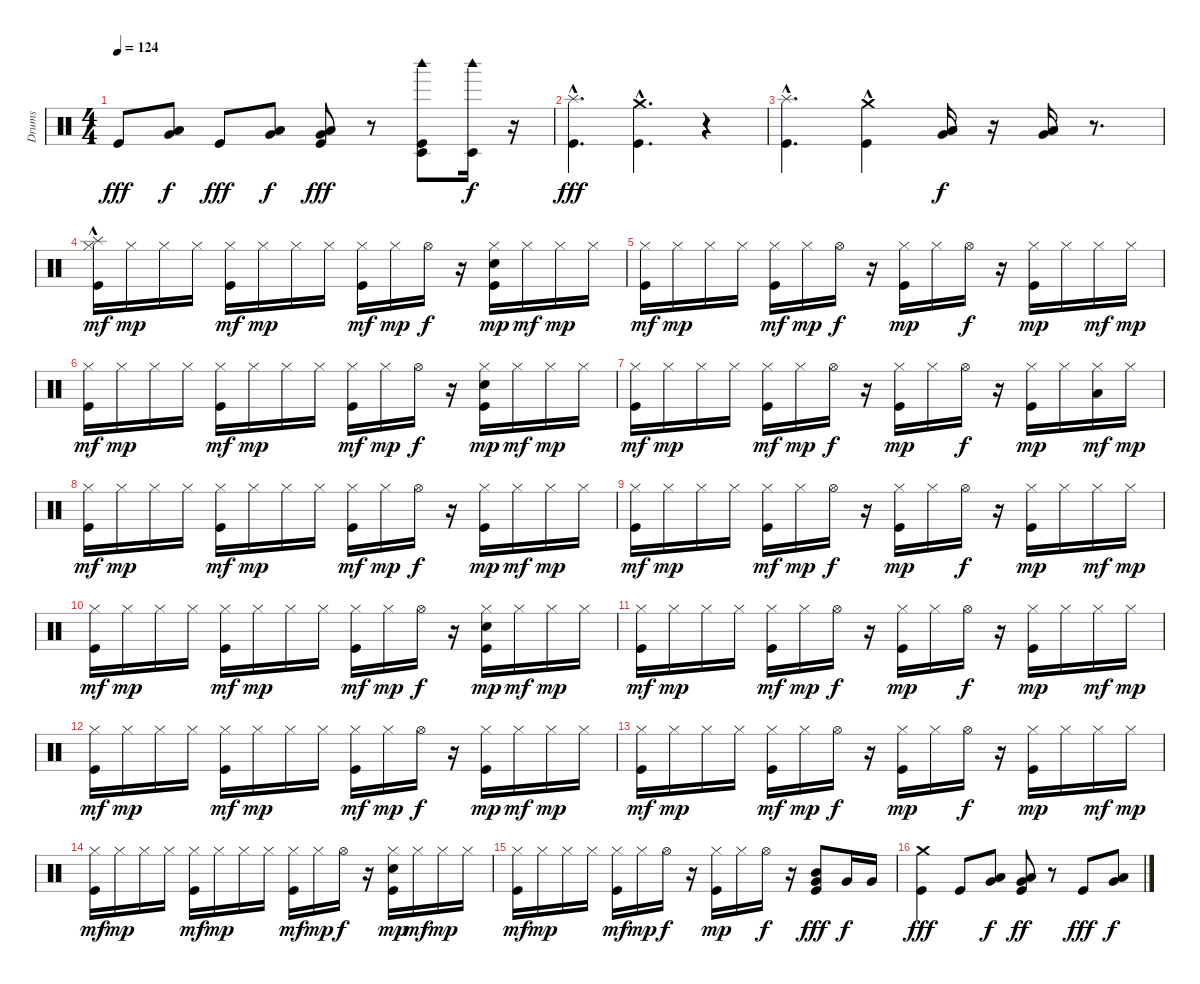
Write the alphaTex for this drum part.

\track ("Drums" "Drums") {instrument percussion}
\staff {score}
\articulation defaults
\ts (4 4)
\tempo 124
\clef neutral
\ks c "Kick (hit)".8{dy fff}
("Very Low Tom (hit)" "Low Tom (hit)").8{dy f} "Kick (hit)".8{dy fff} ("Very Low Tom (hit)" "Low Tom (hit)").8{dy f} ("Kick (hit)" "Very Low Tom (hit)" "Low Tom (hit)").8{dy fff} r.8 ("Kick (hit)" "Woodblock high (hit)" "Timbale low (hit)").8 ("Woodblock high (hit)" "Timbale low (hit)").16{dy f} r.16 |
("Kick (hit)" "Splash (hit)"{hac}).4{d dy fff} ("Kick (hit)" "Crash medium (hit)"{hac}).4{d} r.4 |
("Kick (hit)" "Splash (hit)"{hac}).4{d} ("Kick (hit)" "Crash medium (hit)"{hac}).4 ("Very Low Tom (hit)" "Low Tom (hit)").16{dy f} r.16 ("Very Low Tom (hit)" "Low Tom (hit)").16 r.8{d} |
("Kick (hit)" "Hi-Hat (closed)" "Splash (hit)"{hac}).16{dy mf} "Hi-Hat (closed)".16{dy mp} "Hi-Hat (closed)".16 "Hi-Hat (closed)".16 ("Kick (hit)" "Hi-Hat (closed)").16{dy mf} "Hi-Hat (closed)".16{dy mp} "Hi-Hat (closed)".16 "Hi-Hat (closed)".16 ("Kick (hit)" "Hi-Hat (closed)").16{dy mf} "Hi-Hat (closed)".16{dy mp} "Hi-Hat (open)".16{dy f} r.16 ("Kick (hit)" "Electric Snare (hit)" "Hi-Hat (closed)").16{dy mp} "Hi-Hat (closed)".16{dy mf} "Hi-Hat (closed)".16{dy mp} "Hi-Hat (closed)".16 |
("Kick (hit)" "Hi-Hat (closed)").16{dy mf} "Hi-Hat (closed)".16{dy mp} "Hi-Hat (closed)".16 "Hi-Hat (closed)".16 ("Kick (hit)" "Hi-Hat (closed)").16{dy mf} "Hi-Hat (closed)".16{dy mp} "Hi-Hat (open)".16{dy f} r.16 ("Kick (hit)" "Hi-Hat (closed)").16{dy mp} "Hi-Hat (closed)".16 "Hi-Hat (open)".16{dy f} r.16 ("Kick (hit)" "Hi-Hat (closed)").16{dy mp} "Hi-Hat (closed)".16 "Hi-Hat (closed)".16{dy mf} "Hi-Hat (closed)".16{dy mp} |
("Kick (hit)" "Hi-Hat (closed)").16{dy mf} "Hi-Hat (closed)".16{dy mp} "Hi-Hat (closed)".16 "Hi-Hat (closed)".16 ("Kick (hit)" "Hi-Hat (closed)").16{dy mf} "Hi-Hat (closed)".16{dy mp} "Hi-Hat (closed)".16 "Hi-Hat (closed)".16 ("Kick (hit)" "Hi-Hat (closed)").16{dy mf} "Hi-Hat (closed)".16{dy mp} "Hi-Hat (open)".16{dy f} r.16 ("Kick (hit)" "Electric Snare (hit)" "Hi-Hat (closed)").16{dy mp} "Hi-Hat (closed)".16{dy mf} "Hi-Hat (closed)".16{dy mp} "Hi-Hat (closed)".16 |
("Kick (hit)" "Hi-Hat (closed)").16{dy mf} "Hi-Hat (closed)".16{dy mp} "Hi-Hat (closed)".16 "Hi-Hat (closed)".16 ("Kick (hit)" "Hi-Hat (closed)").16{dy mf} "Hi-Hat (closed)".16{dy mp} "Hi-Hat (open)".16{dy f} r.16 ("Kick (hit)" "Hi-Hat (closed)").16{dy mp} "Hi-Hat (closed)".16 "Hi-Hat (open)".16{dy f} r.16 ("Kick (hit)" "Hi-Hat (closed)").16{dy mp} "Hi-Hat (closed)".16 ("Hi-Hat (closed)" "Low Tom (hit)").16{dy mf} "Hi-Hat (closed)".16{dy mp} |
("Kick (hit)" "Hi-Hat (closed)").16{dy mf} "Hi-Hat (closed)".16{dy mp} "Hi-Hat (closed)".16 "Hi-Hat (closed)".16 ("Kick (hit)" "Hi-Hat (closed)").16{dy mf} "Hi-Hat (closed)".16{dy mp} "Hi-Hat (closed)".16 "Hi-Hat (closed)".16 ("Kick (hit)" "Hi-Hat (closed)").16{dy mf} "Hi-Hat (closed)".16{dy mp} "Hi-Hat (open)".16{dy f} r.16 ("Kick (hit)" "Hi-Hat (closed)").16{dy mp} "Hi-Hat (closed)".16{dy mf} "Hi-Hat (closed)".16{dy mp} "Hi-Hat (closed)".16 |
("Kick (hit)" "Hi-Hat (closed)").16{dy mf} "Hi-Hat (closed)".16{dy mp} "Hi-Hat (closed)".16 "Hi-Hat (closed)".16 ("Kick (hit)" "Hi-Hat (closed)").16{dy mf} "Hi-Hat (closed)".16{dy mp} "Hi-Hat (open)".16{dy f} r.16 ("Kick (hit)" "Hi-Hat (closed)").16{dy mp} "Hi-Hat (closed)".16 "Hi-Hat (open)".16{dy f} r.16 ("Kick (hit)" "Hi-Hat (closed)").16{dy mp} "Hi-Hat (closed)".16 "Hi-Hat (closed)".16{dy mf} "Hi-Hat (closed)".16{dy mp} |
("Kick (hit)" "Hi-Hat (closed)").16{dy mf} "Hi-Hat (closed)".16{dy mp} "Hi-Hat (closed)".16 "Hi-Hat (closed)".16 ("Kick (hit)" "Hi-Hat (closed)").16{dy mf} "Hi-Hat (closed)".16{dy mp} "Hi-Hat (closed)".16 "Hi-Hat (closed)".16 ("Kick (hit)" "Hi-Hat (closed)").16{dy mf} "Hi-Hat (closed)".16{dy mp} "Hi-Hat (open)".16{dy f} r.16 ("Kick (hit)" "Electric Snare (hit)" "Hi-Hat (closed)").16{dy mp} "Hi-Hat (closed)".16{dy mf} "Hi-Hat (closed)".16{dy mp} "Hi-Hat (closed)".16 |
("Kick (hit)" "Hi-Hat (closed)").16{dy mf} "Hi-Hat (closed)".16{dy mp} "Hi-Hat (closed)".16 "Hi-Hat (closed)".16 ("Kick (hit)" "Hi-Hat (closed)").16{dy mf} "Hi-Hat (closed)".16{dy mp} "Hi-Hat (open)".16{dy f} r.16 ("Kick (hit)" "Hi-Hat (closed)").16{dy mp} "Hi-Hat (closed)".16 "Hi-Hat (open)".16{dy f} r.16 ("Kick (hit)" "Hi-Hat (closed)").16{dy mp} "Hi-Hat (closed)".16 "Hi-Hat (closed)".16{dy mf} "Hi-Hat (closed)".16{dy mp} |
("Kick (hit)" "Hi-Hat (closed)").16{dy mf} "Hi-Hat (closed)".16{dy mp} "Hi-Hat (closed)".16 "Hi-Hat (closed)".16 ("Kick (hit)" "Hi-Hat (closed)").16{dy mf} "Hi-Hat (closed)".16{dy mp} "Hi-Hat (closed)".16 "Hi-Hat (closed)".16 ("Kick (hit)" "Hi-Hat (closed)").16{dy mf} "Hi-Hat (closed)".16{dy mp} "Hi-Hat (open)".16{dy f} r.16 ("Kick (hit)" "Hi-Hat (closed)").16{dy mp} "Hi-Hat (closed)".16{dy mf} "Hi-Hat (closed)".16{dy mp} "Hi-Hat (closed)".16 |
("Kick (hit)" "Hi-Hat (closed)").16{dy mf} "Hi-Hat (closed)".16{dy mp} "Hi-Hat (closed)".16 "Hi-Hat (closed)".16 ("Kick (hit)" "Hi-Hat (closed)").16{dy mf} "Hi-Hat (closed)".16{dy mp} "Hi-Hat (open)".16{dy f} r.16 ("Kick (hit)" "Hi-Hat (closed)").16{dy mp} "Hi-Hat (closed)".16 "Hi-Hat (open)".16{dy f} r.16 ("Kick (hit)" "Hi-Hat (closed)").16{dy mp} "Hi-Hat (closed)".16 "Hi-Hat (closed)".16{dy mf} "Hi-Hat (closed)".16{dy mp} |
("Kick (hit)" "Hi-Hat (closed)").16{dy mf} "Hi-Hat (closed)".16{dy mp} "Hi-Hat (closed)".16 "Hi-Hat (closed)".16 ("Kick (hit)" "Hi-Hat (closed)").16{dy mf} "Hi-Hat (closed)".16{dy mp} "Hi-Hat (closed)".16 "Hi-Hat (closed)".16 ("Kick (hit)" "Hi-Hat (closed)").16{dy mf} "Hi-Hat (closed)".16{dy mp} "Hi-Hat (open)".16{dy f} r.16 ("Kick (hit)" "Electric Snare (hit)" "Hi-Hat (closed)").16{dy mp} "Hi-Hat (closed)".16{dy mf} "Hi-Hat (closed)".16{dy mp} "Hi-Hat (closed)".16 |
("Kick (hit)" "Hi-Hat (closed)").16{dy mf} "Hi-Hat (closed)".16{dy mp} "Hi-Hat (closed)".16 "Hi-Hat (closed)".16 ("Kick (hit)" "Hi-Hat (closed)").16{dy mf} "Hi-Hat (closed)".16{dy mp} "Hi-Hat (open)".16{dy f} r.16 ("Kick (hit)" "Hi-Hat (closed)").16{dy mp} "Hi-Hat (closed)".16 "Hi-Hat (open)".16{dy f} r.16 ("Kick (hit)" "Mid Tom (hit)" "Very Low Tom (hit)").8{dy fff} "Very Low Tom (hit)".16{dy f} "Very Low Tom (hit)".16 |
("Kick (hit)" "Crash medium (hit)").4{dy fff} "Kick (hit)".8 ("Very Low Tom (hit)" "Low Tom (hit)").8{dy f} ("Kick (hit)" "Very Low Tom (hit)" "Low Tom (hit)").8{dy ff} r.8 "Kick (hit)".8{dy fff} ("Very Low Tom (hit)" "Low Tom (hit)").8{dy f}
